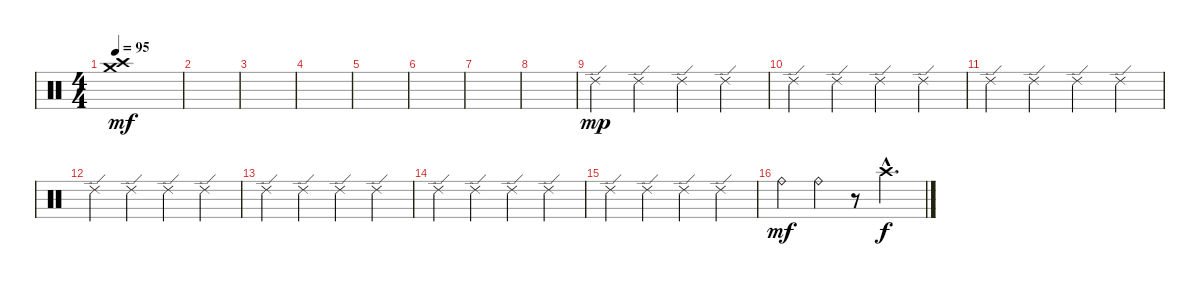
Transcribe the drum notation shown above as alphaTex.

\track "" {instrument percussion}
\staff {score}
\articulation defaults
\ts (4 4)
\tempo 95
\clef neutral
\ks c
("Crash medium (hit)" "Crash high (hit)").1{dy mf} |
|
|
|
|
|
|
|
"Ride (edge) 2".4{dy mp} "Ride (edge) 2".4 "Ride (edge) 2".4 "Ride (edge) 2".4 |
"Ride (edge) 2".4 "Ride (edge) 2".4 "Ride (edge) 2".4 "Ride (edge) 2".4 |
"Ride (edge) 2".4 "Ride (edge) 2".4 "Ride (edge) 2".4 "Ride (edge) 2".4 |
"Ride (edge) 2".4 "Ride (edge) 2".4 "Ride (edge) 2".4 "Ride (edge) 2".4 |
"Ride (edge) 2".4 "Ride (edge) 2".4 "Ride (edge) 2".4 "Ride (edge) 2".4 |
"Ride (edge) 2".4 "Ride (edge) 2".4 "Ride (edge) 2".4 "Ride (edge) 2".4 |
"Ride (edge) 2".4 "Ride (edge) 2".4 "Ride (edge) 2".4 "Ride (edge) 2".4 |
"Ride (bell)".4{dy mf} "Ride (bell)".4 r.8 "Crash high (hit)"{hac}.4{d dy f}
